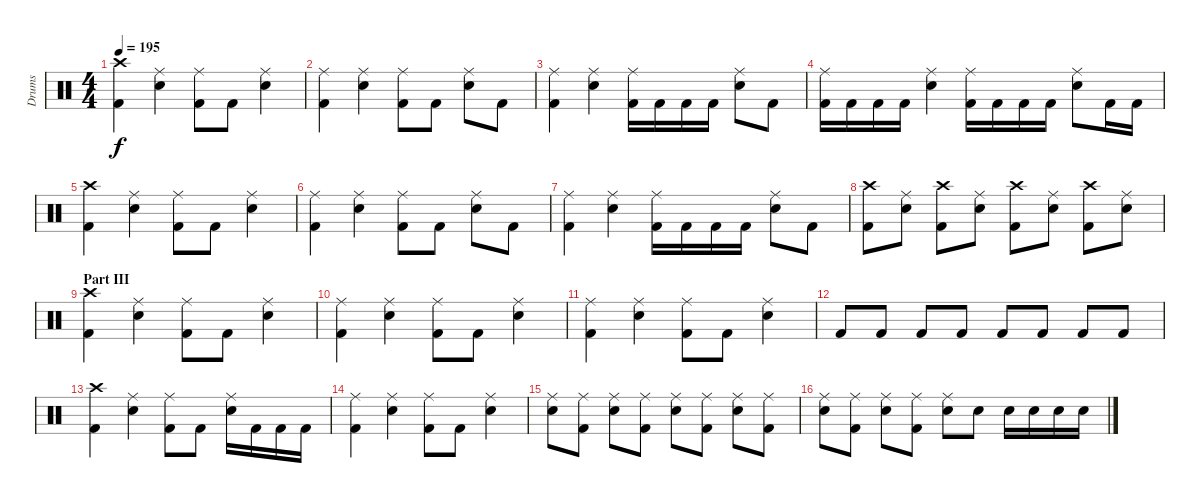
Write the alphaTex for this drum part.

\track ("Drums" "Drums") {instrument percussion}
\staff {score}
\articulation defaults
\ts (4 4)
\tempo 195
\clef neutral
\ks c
("Crash high (hit)" "Kick (hit) 2").4{dy f} ("Ride (middle)" "Snare (hit) 2").4 ("Ride (middle)" "Kick (hit) 2").8 "Kick (hit) 2".8 ("Ride (middle)" "Snare (hit) 2").4 |
("Ride (middle)" "Kick (hit) 2").4 ("Ride (middle)" "Snare (hit) 2").4 ("Ride (middle)" "Kick (hit) 2").8 "Kick (hit) 2".8 ("Ride (middle)" "Snare (hit) 2").8 "Kick (hit) 2".8 |
("Ride (middle)" "Kick (hit) 2").4 ("Ride (middle)" "Snare (hit) 2").4 ("Ride (middle)" "Kick (hit) 2").16 "Kick (hit) 2".16 "Kick (hit) 2".16 "Kick (hit) 2".16 ("Ride (middle)" "Snare (hit) 2").8 "Kick (hit) 2".8 |
("Ride (middle)" "Kick (hit) 2").16 "Kick (hit) 2".16 "Kick (hit) 2".16 "Kick (hit) 2".16 ("Ride (middle)" "Snare (hit) 2").4 ("Ride (middle)" "Kick (hit) 2").16 "Kick (hit) 2".16 "Kick (hit) 2".16 "Kick (hit) 2".16 ("Ride (middle)" "Snare (hit) 2").8 "Kick (hit) 2".16 "Kick (hit) 2".16 |
("Crash high (hit)" "Kick (hit) 2").4 ("Ride (middle)" "Snare (hit) 2").4 ("Ride (middle)" "Kick (hit) 2").8 "Kick (hit) 2".8 ("Ride (middle)" "Snare (hit) 2").4 |
("Ride (middle)" "Kick (hit) 2").4 ("Ride (middle)" "Snare (hit) 2").4 ("Ride (middle)" "Kick (hit) 2").8 "Kick (hit) 2".8 ("Ride (middle)" "Snare (hit) 2").8 "Kick (hit) 2".8 |
("Ride (middle)" "Kick (hit) 2").4 ("Ride (middle)" "Snare (hit) 2").4 ("Ride (middle)" "Kick (hit) 2").16 "Kick (hit) 2".16 "Kick (hit) 2".16 "Kick (hit) 2".16 ("Ride (middle)" "Snare (hit) 2").8 "Kick (hit) 2".8 |
("Crash high (hit)" "Kick (hit) 2").8 ("Ride (middle)" "Snare (hit) 2").8 ("Crash high (hit)" "Kick (hit) 2").8 ("Ride (middle)" "Snare (hit) 2").8 ("Crash high (hit)" "Kick (hit) 2").8 ("Ride (middle)" "Snare (hit) 2").8 ("Crash high (hit)" "Kick (hit) 2").8 ("Ride (middle)" "Snare (hit) 2").8 |
\section ("" "Part III")
("Crash high (hit)" "Kick (hit) 2").4 ("Ride (middle)" "Snare (hit) 2").4 ("Ride (middle)" "Kick (hit) 2").8 "Kick (hit) 2".8 ("Ride (middle)" "Snare (hit) 2").4 |
("Ride (middle)" "Kick (hit) 2").4 ("Ride (middle)" "Snare (hit) 2").4 ("Ride (middle)" "Kick (hit) 2").8 "Kick (hit) 2".8 ("Ride (middle)" "Snare (hit) 2").4 |
("Ride (middle)" "Kick (hit) 2").4 ("Ride (middle)" "Snare (hit) 2").4 ("Ride (middle)" "Kick (hit) 2").8 "Kick (hit) 2".8 ("Ride (middle)" "Snare (hit) 2").4 |
"Kick (hit) 2".8 "Kick (hit) 2".8 "Kick (hit) 2".8 "Kick (hit) 2".8 "Kick (hit) 2".8 "Kick (hit) 2".8 "Kick (hit) 2".8 "Kick (hit) 2".8 |
("Crash high (hit)" "Kick (hit) 2").4 ("Ride (middle)" "Snare (hit) 2").4 ("Ride (middle)" "Kick (hit) 2").8 "Kick (hit) 2".8 ("Ride (middle)" "Snare (hit) 2").16 "Kick (hit) 2".16 "Kick (hit) 2".16 "Kick (hit) 2".16 |
("Ride (middle)" "Kick (hit) 2").4 ("Ride (middle)" "Snare (hit) 2").4 ("Ride (middle)" "Kick (hit) 2").8 "Kick (hit) 2".8 ("Ride (middle)" "Snare (hit) 2").4 |
("Ride (middle)" "Snare (hit) 2").8 ("Ride (middle)" "Kick (hit) 2").8 ("Ride (middle)" "Snare (hit) 2").8 ("Ride (middle)" "Kick (hit) 2").8 ("Ride (middle)" "Snare (hit) 2").8 ("Ride (middle)" "Kick (hit) 2").8 ("Ride (middle)" "Snare (hit) 2").8 ("Ride (middle)" "Kick (hit) 2").8 |
("Ride (middle)" "Snare (hit) 2").8 ("Ride (middle)" "Kick (hit) 2").8 ("Ride (middle)" "Snare (hit) 2").8 ("Ride (middle)" "Kick (hit) 2").8 ("Ride (middle)" "Snare (hit) 2").8 "Snare (hit) 2".8 "Snare (hit) 2".16 "Snare (hit) 2".16 "Snare (hit) 2".16 "Snare (hit) 2".16
